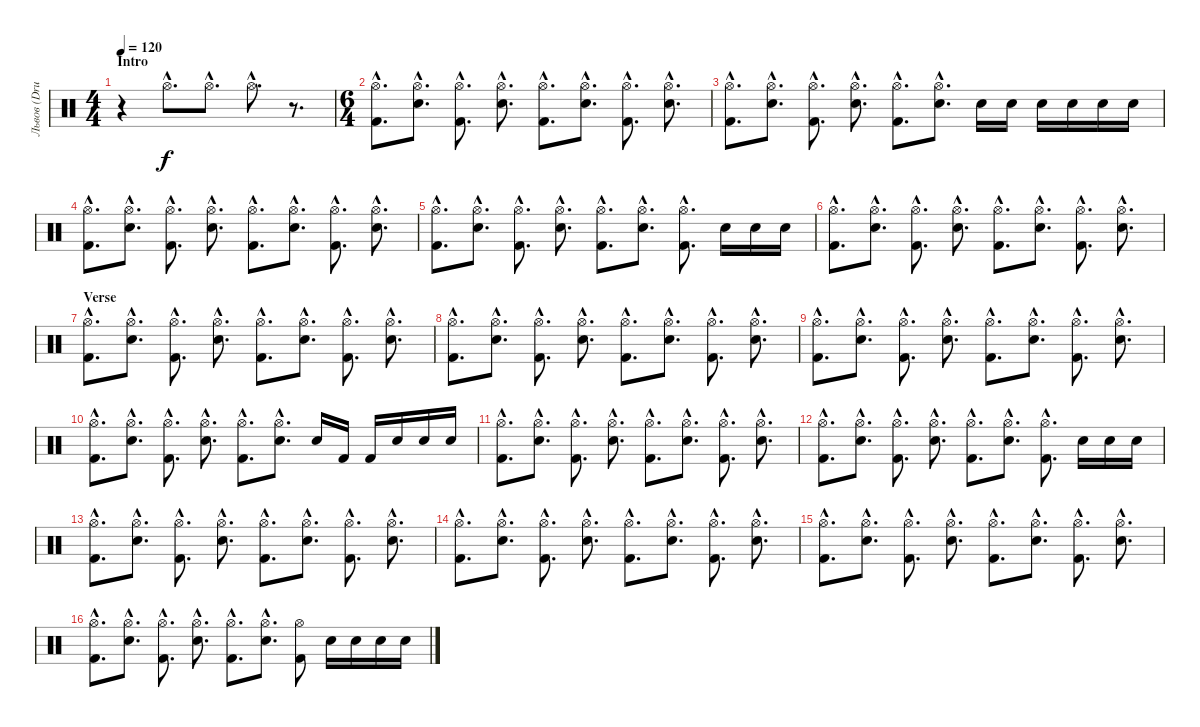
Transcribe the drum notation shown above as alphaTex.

\track ("Львов (Drums)" "Львов (Dru") {instrument percussion}
\staff {score}
\articulation defaults
\ts (4 4)
\section ("" "Intro")
\tempo 120
\clef neutral
\ks c
r.4{dy f} "Hi-Hat (open)"{hac}.8{d} "Hi-Hat (open)"{hac}.8{d} "Hi-Hat (open)"{hac}.8{d} r.8{d} |
\ts (6 4)
("Kick (hit) 2"{hac} "Hi-Hat (open)"{hac}).8{d} ("Electric Snare (hit)"{hac} "Hi-Hat (open)"{hac}).8{d} ("Kick (hit) 2"{hac} "Hi-Hat (open)"{hac}).8{d} ("Electric Snare (hit)"{hac} "Hi-Hat (open)"{hac}).8{d} ("Kick (hit) 2"{hac} "Hi-Hat (open)"{hac}).8{d} ("Electric Snare (hit)"{hac} "Hi-Hat (open)"{hac}).8{d} ("Kick (hit) 2"{hac} "Hi-Hat (open)"{hac}).8{d} ("Electric Snare (hit)"{hac} "Hi-Hat (open)"{hac}).8{d} |
("Kick (hit) 2"{hac} "Hi-Hat (open)"{hac}).8{d} ("Electric Snare (hit)"{hac} "Hi-Hat (open)"{hac}).8{d} ("Kick (hit) 2"{hac} "Hi-Hat (open)"{hac}).8{d} ("Electric Snare (hit)"{hac} "Hi-Hat (open)"{hac}).8{d} ("Kick (hit) 2"{hac} "Hi-Hat (open)"{hac}).8{d} ("Electric Snare (hit)"{hac} "Hi-Hat (open)"{hac}).8{d} "Electric Snare (hit)".16 "Electric Snare (hit)".16 "Electric Snare (hit)".16 "Electric Snare (hit)".16 "Electric Snare (hit)".16 "Electric Snare (hit)".16 |
("Kick (hit) 2"{hac} "Hi-Hat (open)"{hac}).8{d} ("Electric Snare (hit)"{hac} "Hi-Hat (open)"{hac}).8{d} ("Kick (hit) 2"{hac} "Hi-Hat (open)"{hac}).8{d} ("Electric Snare (hit)"{hac} "Hi-Hat (open)"{hac}).8{d} ("Kick (hit) 2"{hac} "Hi-Hat (open)"{hac}).8{d} ("Electric Snare (hit)"{hac} "Hi-Hat (open)"{hac}).8{d} ("Kick (hit) 2"{hac} "Hi-Hat (open)"{hac}).8{d} ("Electric Snare (hit)"{hac} "Hi-Hat (open)"{hac}).8{d} |
("Kick (hit) 2"{hac} "Hi-Hat (open)"{hac}).8{d} ("Electric Snare (hit)"{hac} "Hi-Hat (open)"{hac}).8{d} ("Kick (hit) 2"{hac} "Hi-Hat (open)"{hac}).8{d} ("Electric Snare (hit)"{hac} "Hi-Hat (open)"{hac}).8{d} ("Kick (hit) 2"{hac} "Hi-Hat (open)"{hac}).8{d} ("Electric Snare (hit)"{hac} "Hi-Hat (open)"{hac}).8{d} ("Kick (hit) 2"{hac} "Hi-Hat (open)"{hac}).8{d} "Electric Snare (hit)".16 "Electric Snare (hit)".16 "Electric Snare (hit)".16 |
("Kick (hit) 2"{hac} "Hi-Hat (open)"{hac}).8{d} ("Electric Snare (hit)"{hac} "Hi-Hat (open)"{hac}).8{d} ("Kick (hit) 2"{hac} "Hi-Hat (open)"{hac}).8{d} ("Electric Snare (hit)"{hac} "Hi-Hat (open)"{hac}).8{d} ("Kick (hit) 2"{hac} "Hi-Hat (open)"{hac}).8{d} ("Electric Snare (hit)"{hac} "Hi-Hat (open)"{hac}).8{d} ("Kick (hit) 2"{hac} "Hi-Hat (open)"{hac}).8{d} ("Electric Snare (hit)"{hac} "Hi-Hat (open)"{hac}).8{d} |
\section ("" "Verse")
("Kick (hit) 2"{hac} "Hi-Hat (open)"{hac}).8{d} ("Electric Snare (hit)"{hac} "Hi-Hat (open)"{hac}).8{d} ("Kick (hit) 2"{hac} "Hi-Hat (open)"{hac}).8{d} ("Electric Snare (hit)"{hac} "Hi-Hat (open)"{hac}).8{d} ("Kick (hit) 2"{hac} "Hi-Hat (open)"{hac}).8{d} ("Electric Snare (hit)"{hac} "Hi-Hat (open)"{hac}).8{d} ("Kick (hit) 2"{hac} "Hi-Hat (open)"{hac}).8{d} ("Electric Snare (hit)"{hac} "Hi-Hat (open)"{hac}).8{d} |
("Kick (hit) 2"{hac} "Hi-Hat (open)"{hac}).8{d} ("Electric Snare (hit)"{hac} "Hi-Hat (open)"{hac}).8{d} ("Kick (hit) 2"{hac} "Hi-Hat (open)"{hac}).8{d} ("Electric Snare (hit)"{hac} "Hi-Hat (open)"{hac}).8{d} ("Kick (hit) 2"{hac} "Hi-Hat (open)"{hac}).8{d} ("Electric Snare (hit)"{hac} "Hi-Hat (open)"{hac}).8{d} ("Kick (hit) 2"{hac} "Hi-Hat (open)"{hac}).8{d} ("Electric Snare (hit)"{hac} "Hi-Hat (open)"{hac}).8{d} |
("Kick (hit) 2"{hac} "Hi-Hat (open)"{hac}).8{d} ("Electric Snare (hit)"{hac} "Hi-Hat (open)"{hac}).8{d} ("Kick (hit) 2"{hac} "Hi-Hat (open)"{hac}).8{d} ("Electric Snare (hit)"{hac} "Hi-Hat (open)"{hac}).8{d} ("Kick (hit) 2"{hac} "Hi-Hat (open)"{hac}).8{d} ("Electric Snare (hit)"{hac} "Hi-Hat (open)"{hac}).8{d} ("Kick (hit) 2"{hac} "Hi-Hat (open)"{hac}).8{d} ("Electric Snare (hit)"{hac} "Hi-Hat (open)"{hac}).8{d} |
("Kick (hit) 2"{hac} "Hi-Hat (open)"{hac}).8{d} ("Electric Snare (hit)"{hac} "Hi-Hat (open)"{hac}).8{d} ("Kick (hit) 2"{hac} "Hi-Hat (open)"{hac}).8{d} ("Electric Snare (hit)"{hac} "Hi-Hat (open)"{hac}).8{d} ("Kick (hit) 2"{hac} "Hi-Hat (open)"{hac}).8{d} ("Electric Snare (hit)"{hac} "Hi-Hat (open)"{hac}).8{d} "Electric Snare (hit)".16 "Kick (hit) 2".16 "Kick (hit) 2".16 "Electric Snare (hit)".16 "Electric Snare (hit)".16 "Electric Snare (hit)".16 |
("Kick (hit) 2"{hac} "Hi-Hat (open)"{hac}).8{d} ("Electric Snare (hit)"{hac} "Hi-Hat (open)"{hac}).8{d} ("Kick (hit) 2"{hac} "Hi-Hat (open)"{hac}).8{d} ("Electric Snare (hit)"{hac} "Hi-Hat (open)"{hac}).8{d} ("Kick (hit) 2"{hac} "Hi-Hat (open)"{hac}).8{d} ("Electric Snare (hit)"{hac} "Hi-Hat (open)"{hac}).8{d} ("Kick (hit) 2"{hac} "Hi-Hat (open)"{hac}).8{d} ("Electric Snare (hit)"{hac} "Hi-Hat (open)"{hac}).8{d} |
("Kick (hit) 2"{hac} "Hi-Hat (open)"{hac}).8{d} ("Electric Snare (hit)"{hac} "Hi-Hat (open)"{hac}).8{d} ("Kick (hit) 2"{hac} "Hi-Hat (open)"{hac}).8{d} ("Electric Snare (hit)"{hac} "Hi-Hat (open)"{hac}).8{d} ("Kick (hit) 2"{hac} "Hi-Hat (open)"{hac}).8{d} ("Electric Snare (hit)"{hac} "Hi-Hat (open)"{hac}).8{d} ("Kick (hit) 2"{hac} "Hi-Hat (open)"{hac}).8{d} "Electric Snare (hit)".16 "Electric Snare (hit)".16 "Electric Snare (hit)".16 |
("Kick (hit) 2"{hac} "Hi-Hat (open)"{hac}).8{d} ("Electric Snare (hit)"{hac} "Hi-Hat (open)"{hac}).8{d} ("Kick (hit) 2"{hac} "Hi-Hat (open)"{hac}).8{d} ("Electric Snare (hit)"{hac} "Hi-Hat (open)"{hac}).8{d} ("Kick (hit) 2"{hac} "Hi-Hat (open)"{hac}).8{d} ("Electric Snare (hit)"{hac} "Hi-Hat (open)"{hac}).8{d} ("Kick (hit) 2"{hac} "Hi-Hat (open)"{hac}).8{d} ("Electric Snare (hit)"{hac} "Hi-Hat (open)"{hac}).8{d} |
("Kick (hit) 2"{hac} "Hi-Hat (open)"{hac}).8{d} ("Electric Snare (hit)"{hac} "Hi-Hat (open)"{hac}).8{d} ("Kick (hit) 2"{hac} "Hi-Hat (open)"{hac}).8{d} ("Electric Snare (hit)"{hac} "Hi-Hat (open)"{hac}).8{d} ("Kick (hit) 2"{hac} "Hi-Hat (open)"{hac}).8{d} ("Electric Snare (hit)"{hac} "Hi-Hat (open)"{hac}).8{d} ("Kick (hit) 2"{hac} "Hi-Hat (open)"{hac}).8{d} ("Electric Snare (hit)"{hac} "Hi-Hat (open)"{hac}).8{d} |
("Kick (hit) 2"{hac} "Hi-Hat (open)"{hac}).8{d} ("Electric Snare (hit)"{hac} "Hi-Hat (open)"{hac}).8{d} ("Kick (hit) 2"{hac} "Hi-Hat (open)"{hac}).8{d} ("Electric Snare (hit)"{hac} "Hi-Hat (open)"{hac}).8{d} ("Kick (hit) 2"{hac} "Hi-Hat (open)"{hac}).8{d} ("Electric Snare (hit)"{hac} "Hi-Hat (open)"{hac}).8{d} ("Kick (hit) 2"{hac} "Hi-Hat (open)"{hac}).8{d} ("Electric Snare (hit)"{hac} "Hi-Hat (open)"{hac}).8{d} |
("Kick (hit) 2"{hac} "Hi-Hat (open)"{hac}).8{d} ("Electric Snare (hit)"{hac} "Hi-Hat (open)"{hac}).8{d} ("Kick (hit) 2"{hac} "Hi-Hat (open)"{hac}).8{d} ("Electric Snare (hit)"{hac} "Hi-Hat (open)"{hac}).8{d} ("Kick (hit) 2"{hac} "Hi-Hat (open)"{hac}).8{d} ("Electric Snare (hit)"{hac} "Hi-Hat (open)"{hac}).8{d} ("Kick (hit) 2" "Hi-Hat (open)").8 "Electric Snare (hit)".16 "Electric Snare (hit)".16 "Electric Snare (hit)".16 "Electric Snare (hit)".16
